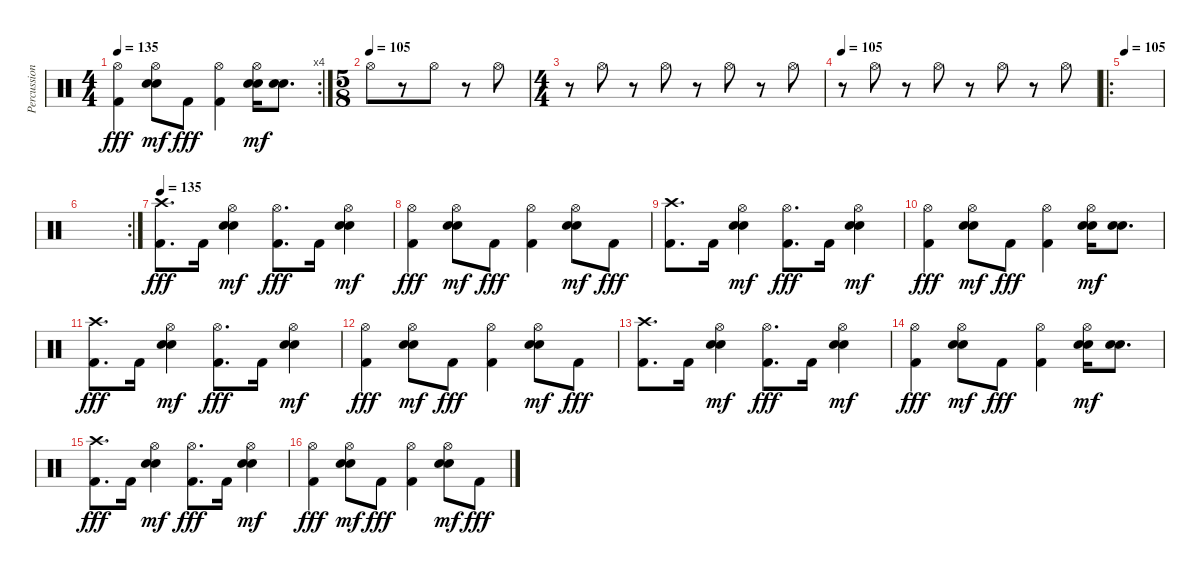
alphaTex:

\track ("Percussion" "Percussion") {instrument percussion}
\staff {score}
\articulation defaults
\rc 4
\ts (4 4)
\tempo 135
\clef neutral
\ks c
("Hi-Hat (open)" "Kick (hit) 2").4{dy fff} ("Hi-Hat (open)" "Electric Snare (hit)" "Snare (hit) 2").8{dy mf} "Kick (hit) 2".8{dy fff} ("Hi-Hat (open)" "Kick (hit) 2").4 ("Hi-Hat (open)" "Electric Snare (hit)" "Snare (hit) 2").16{dy mf} ("Electric Snare (hit)" "Snare (hit) 2").8{d} |
\ts (5 8)
\tempo (105)
"Hi-Hat (open)".8 r.8 "Hi-Hat (open)".8 r.8 "Hi-Hat (open)".8 |
\ts (4 4)
r.8 "Hi-Hat (open)".8 r.8 "Hi-Hat (open)".8 r.8 "Hi-Hat (open)".8 r.8 "Hi-Hat (open)".8 |
\tempo 105
r.8 "Hi-Hat (open)".8 r.8 "Hi-Hat (open)".8 r.8 "Hi-Hat (open)".8 r.8 "Hi-Hat (open)".8 |
\ro
\tempo 105
|
\rc 2
|
\tempo 135
("Crash high (hit)" "Kick (hit) 2").8{d dy fff} "Kick (hit) 2".16 ("Hi-Hat (open)" "Electric Snare (hit)" "Snare (hit) 2").4{dy mf} ("Hi-Hat (open)" "Kick (hit) 2").8{d dy fff} "Kick (hit) 2".16 ("Hi-Hat (open)" "Electric Snare (hit)" "Snare (hit) 2").4{dy mf} |
("Hi-Hat (open)" "Kick (hit) 2").4{dy fff} ("Hi-Hat (open)" "Electric Snare (hit)" "Snare (hit) 2").8{dy mf} "Kick (hit) 2".8{dy fff} ("Hi-Hat (open)" "Kick (hit) 2").4 ("Hi-Hat (open)" "Electric Snare (hit)" "Snare (hit) 2").8{dy mf} "Kick (hit) 2".8{dy fff} |
("Crash high (hit)" "Kick (hit) 2").8{d} "Kick (hit) 2".16 ("Hi-Hat (open)" "Electric Snare (hit)" "Snare (hit) 2").4{dy mf} ("Hi-Hat (open)" "Kick (hit) 2").8{d dy fff} "Kick (hit) 2".16 ("Hi-Hat (open)" "Electric Snare (hit)" "Snare (hit) 2").4{dy mf} |
("Hi-Hat (open)" "Kick (hit) 2").4{dy fff} ("Hi-Hat (open)" "Electric Snare (hit)" "Snare (hit) 2").8{dy mf} "Kick (hit) 2".8{dy fff} ("Hi-Hat (open)" "Kick (hit) 2").4 ("Hi-Hat (open)" "Electric Snare (hit)" "Snare (hit) 2").16{dy mf} ("Electric Snare (hit)" "Snare (hit) 2").8{d} |
("Crash high (hit)" "Kick (hit) 2").8{d dy fff} "Kick (hit) 2".16 ("Hi-Hat (open)" "Electric Snare (hit)" "Snare (hit) 2").4{dy mf} ("Hi-Hat (open)" "Kick (hit) 2").8{d dy fff} "Kick (hit) 2".16 ("Hi-Hat (open)" "Electric Snare (hit)" "Snare (hit) 2").4{dy mf} |
("Hi-Hat (open)" "Kick (hit) 2").4{dy fff} ("Hi-Hat (open)" "Electric Snare (hit)" "Snare (hit) 2").8{dy mf} "Kick (hit) 2".8{dy fff} ("Hi-Hat (open)" "Kick (hit) 2").4 ("Hi-Hat (open)" "Electric Snare (hit)" "Snare (hit) 2").8{dy mf} "Kick (hit) 2".8{dy fff} |
("Crash high (hit)" "Kick (hit) 2").8{d} "Kick (hit) 2".16 ("Hi-Hat (open)" "Electric Snare (hit)" "Snare (hit) 2").4{dy mf} ("Hi-Hat (open)" "Kick (hit) 2").8{d dy fff} "Kick (hit) 2".16 ("Hi-Hat (open)" "Electric Snare (hit)" "Snare (hit) 2").4{dy mf} |
("Hi-Hat (open)" "Kick (hit) 2").4{dy fff} ("Hi-Hat (open)" "Electric Snare (hit)" "Snare (hit) 2").8{dy mf} "Kick (hit) 2".8{dy fff} ("Hi-Hat (open)" "Kick (hit) 2").4 ("Hi-Hat (open)" "Electric Snare (hit)" "Snare (hit) 2").16{dy mf} ("Electric Snare (hit)" "Snare (hit) 2").8{d} |
("Crash high (hit)" "Kick (hit) 2").8{d dy fff} "Kick (hit) 2".16 ("Hi-Hat (open)" "Electric Snare (hit)" "Snare (hit) 2").4{dy mf} ("Hi-Hat (open)" "Kick (hit) 2").8{d dy fff} "Kick (hit) 2".16 ("Hi-Hat (open)" "Electric Snare (hit)" "Snare (hit) 2").4{dy mf} |
("Hi-Hat (open)" "Kick (hit) 2").4{dy fff} ("Hi-Hat (open)" "Electric Snare (hit)" "Snare (hit) 2").8{dy mf} "Kick (hit) 2".8{dy fff} ("Hi-Hat (open)" "Kick (hit) 2").4 ("Hi-Hat (open)" "Electric Snare (hit)" "Snare (hit) 2").8{dy mf} "Kick (hit) 2".8{dy fff}
